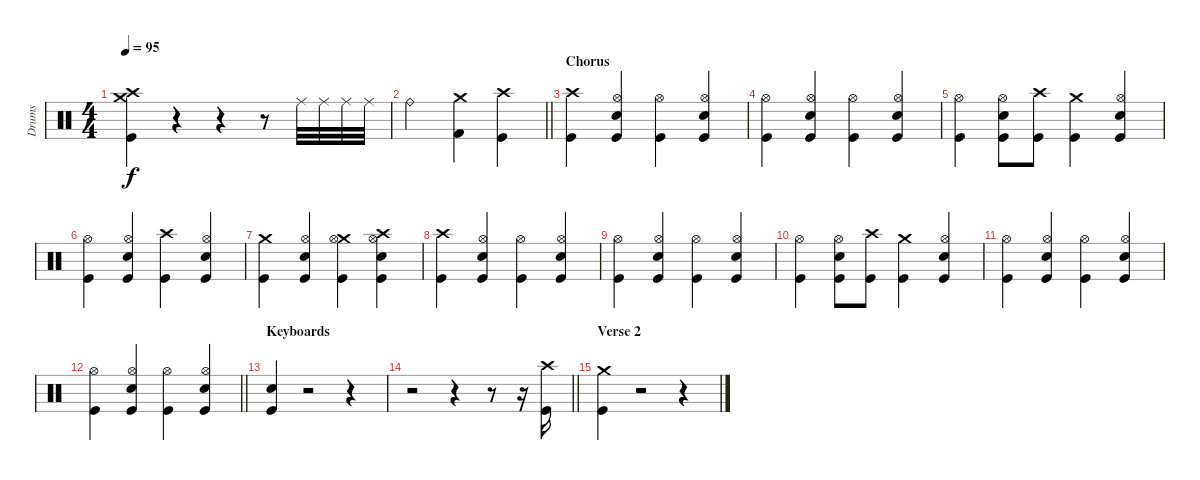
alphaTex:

\track ("Drums" "Drums") {instrument percussion}
\staff {score}
\articulation defaults
\ts (4 4)
\tempo 95
\clef neutral
\ks c
("Crash medium (hit)" "Crash high (hit)" "Kick (hit)").4{dy f} r.4 r.4 r.8 "Ride (middle)".32 "Ride (middle)".32 "Ride (middle)".32 "Ride (middle)".32 |
\barLineRight lightlight "Ride (bell)".2
("Crash medium (hit)" "Kick (hit) 2").4 ("Crash high (hit)" "Kick (hit)").4 |
\section ("" "Chorus")
("Crash high (hit)" "Kick (hit)").4 ("Hi-Hat (open)" "Snare (hit) 2" "Kick (hit)").4 ("Hi-Hat (open)" "Kick (hit)").4 ("Hi-Hat (open)" "Snare (hit) 2" "Kick (hit)").4 |
("Hi-Hat (open)" "Kick (hit)").4 ("Hi-Hat (open)" "Snare (hit) 2" "Kick (hit)").4 ("Hi-Hat (open)" "Kick (hit)").4 ("Hi-Hat (open)" "Snare (hit) 2" "Kick (hit)").4 |
("Hi-Hat (open)" "Kick (hit)").4 ("Hi-Hat (open)" "Snare (hit) 2" "Kick (hit)").8 ("Crash high (hit)" "Kick (hit)").8 ("Crash medium (hit)" "Kick (hit)").4 ("Hi-Hat (open)" "Snare (hit) 2" "Kick (hit)").4 |
("Hi-Hat (open)" "Kick (hit)").4 ("Hi-Hat (open)" "Snare (hit) 2" "Kick (hit)").4 ("Crash high (hit)" "Kick (hit)").4 ("Hi-Hat (open)" "Snare (hit) 2" "Kick (hit)").4 |
("Crash medium (hit)" "Kick (hit)").4 ("Hi-Hat (open)" "Snare (hit) 2" "Kick (hit)").4 ("Crash medium (hit)" "Hi-Hat (open)" "Kick (hit)").4 ("Crash high (hit)" "Hi-Hat (open)" "Snare (hit) 2" "Kick (hit)").4 |
("Crash high (hit)" "Kick (hit)").4 ("Hi-Hat (open)" "Snare (hit) 2" "Kick (hit)").4 ("Hi-Hat (open)" "Kick (hit)").4 ("Hi-Hat (open)" "Snare (hit) 2" "Kick (hit)").4 |
("Hi-Hat (open)" "Kick (hit)").4 ("Hi-Hat (open)" "Snare (hit) 2" "Kick (hit)").4 ("Hi-Hat (open)" "Kick (hit)").4 ("Hi-Hat (open)" "Snare (hit) 2" "Kick (hit)").4 |
("Hi-Hat (open)" "Kick (hit)").4 ("Hi-Hat (open)" "Snare (hit) 2" "Kick (hit)").8 ("Crash high (hit)" "Kick (hit)").8 ("Crash medium (hit)" "Kick (hit)").4 ("Hi-Hat (open)" "Snare (hit) 2" "Kick (hit)").4 |
("Hi-Hat (open)" "Kick (hit)").4 ("Hi-Hat (open)" "Snare (hit) 2" "Kick (hit)").4 ("Hi-Hat (open)" "Kick (hit)").4 ("Hi-Hat (open)" "Snare (hit) 2" "Kick (hit)").4 |
\barLineRight lightlight
("Hi-Hat (open)" "Kick (hit)").4 ("Hi-Hat (open)" "Snare (hit) 2" "Kick (hit)").4 ("Hi-Hat (open)" "Kick (hit)").4 ("Hi-Hat (open)" "Snare (hit) 2" "Kick (hit)").4 |
\section ("" "Keyboards")
("Snare (hit) 2" "Kick (hit)").4 r.2 r.4 |
\barLineRight lightlight
r.2 r.4 r.8 r.16 ("Crash high (hit)" "Kick (hit)").16 |
\section ("" "Verse 2")
("Crash medium (hit)" "Kick (hit)").4 r.2 r.4
